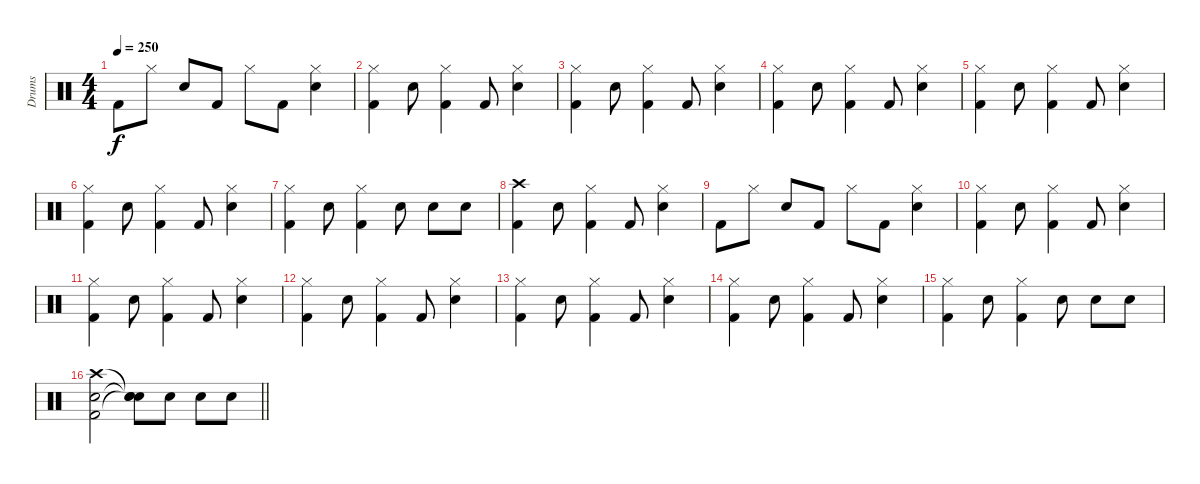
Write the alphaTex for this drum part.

\track ("Drums" "Drums") {instrument percussion}
\staff {score}
\articulation defaults
\ts (4 4)
\tempo 250
\clef neutral
\ks c "Kick (hit) 2".8{dy f} "Hi-Hat (closed)".8 "Snare (hit) 2".8 "Kick (hit) 2".8 "Hi-Hat (closed)".8 "Kick (hit) 2".8
("Hi-Hat (closed)" "Snare (hit) 2").4 |
("Hi-Hat (closed)" "Kick (hit) 2").4 "Snare (hit) 2".8 ("Hi-Hat (closed)" "Kick (hit) 2").4 "Kick (hit) 2".8 ("Hi-Hat (closed)" "Snare (hit) 2").4 |
("Hi-Hat (closed)" "Kick (hit) 2").4 "Snare (hit) 2".8 ("Hi-Hat (closed)" "Kick (hit) 2").4 "Kick (hit) 2".8 ("Hi-Hat (closed)" "Snare (hit) 2").4 |
("Hi-Hat (closed)" "Kick (hit) 2").4 "Snare (hit) 2".8 ("Hi-Hat (closed)" "Kick (hit) 2").4 "Kick (hit) 2".8 ("Hi-Hat (closed)" "Snare (hit) 2").4 |
("Hi-Hat (closed)" "Kick (hit) 2").4 "Snare (hit) 2".8 ("Hi-Hat (closed)" "Kick (hit) 2").4 "Kick (hit) 2".8 ("Hi-Hat (closed)" "Snare (hit) 2").4 |
("Hi-Hat (closed)" "Kick (hit) 2").4 "Snare (hit) 2".8 ("Hi-Hat (closed)" "Kick (hit) 2").4 "Kick (hit) 2".8 ("Hi-Hat (closed)" "Snare (hit) 2").4 |
("Hi-Hat (closed)" "Kick (hit) 2").4 "Snare (hit) 2".8 ("Hi-Hat (closed)" "Kick (hit) 2").4 "Snare (hit) 2".8 "Snare (hit) 2".8 "Snare (hit) 2".8 |
("Crash high (hit)" "Kick (hit) 2").4 "Snare (hit) 2".8 ("Hi-Hat (closed)" "Kick (hit) 2").4 "Kick (hit) 2".8 ("Hi-Hat (closed)" "Snare (hit) 2").4 |
"Kick (hit) 2".8 "Hi-Hat (closed)".8 "Snare (hit) 2".8 "Kick (hit) 2".8 "Hi-Hat (closed)".8 "Kick (hit) 2".8 ("Hi-Hat (closed)" "Snare (hit) 2").4 |
("Hi-Hat (closed)" "Kick (hit) 2").4 "Snare (hit) 2".8 ("Hi-Hat (closed)" "Kick (hit) 2").4 "Kick (hit) 2".8 ("Hi-Hat (closed)" "Snare (hit) 2").4 |
("Hi-Hat (closed)" "Kick (hit) 2").4 "Snare (hit) 2".8 ("Hi-Hat (closed)" "Kick (hit) 2").4 "Kick (hit) 2".8 ("Hi-Hat (closed)" "Snare (hit) 2").4 |
("Hi-Hat (closed)" "Kick (hit) 2").4 "Snare (hit) 2".8 ("Hi-Hat (closed)" "Kick (hit) 2").4 "Kick (hit) 2".8 ("Hi-Hat (closed)" "Snare (hit) 2").4 |
("Hi-Hat (closed)" "Kick (hit) 2").4 "Snare (hit) 2".8 ("Hi-Hat (closed)" "Kick (hit) 2").4 "Kick (hit) 2".8 ("Hi-Hat (closed)" "Snare (hit) 2").4 |
("Hi-Hat (closed)" "Kick (hit) 2").4 "Snare (hit) 2".8 ("Hi-Hat (closed)" "Kick (hit) 2").4 "Kick (hit) 2".8 ("Hi-Hat (closed)" "Snare (hit) 2").4 |
("Hi-Hat (closed)" "Kick (hit) 2").4 "Snare (hit) 2".8 ("Hi-Hat (closed)" "Kick (hit) 2").4 "Snare (hit) 2".8 "Snare (hit) 2".8 "Snare (hit) 2".8 |
\barLineRight lightlight
("Crash high (hit)" "Snare (hit) 2" "Kick (hit) 2").2 ("Snare (hit)"{t} "Snare (hit)"{t} "Snare (hit)"{t}).8 "Snare (hit) 2".8 "Snare (hit) 2".8 "Snare (hit) 2".8
